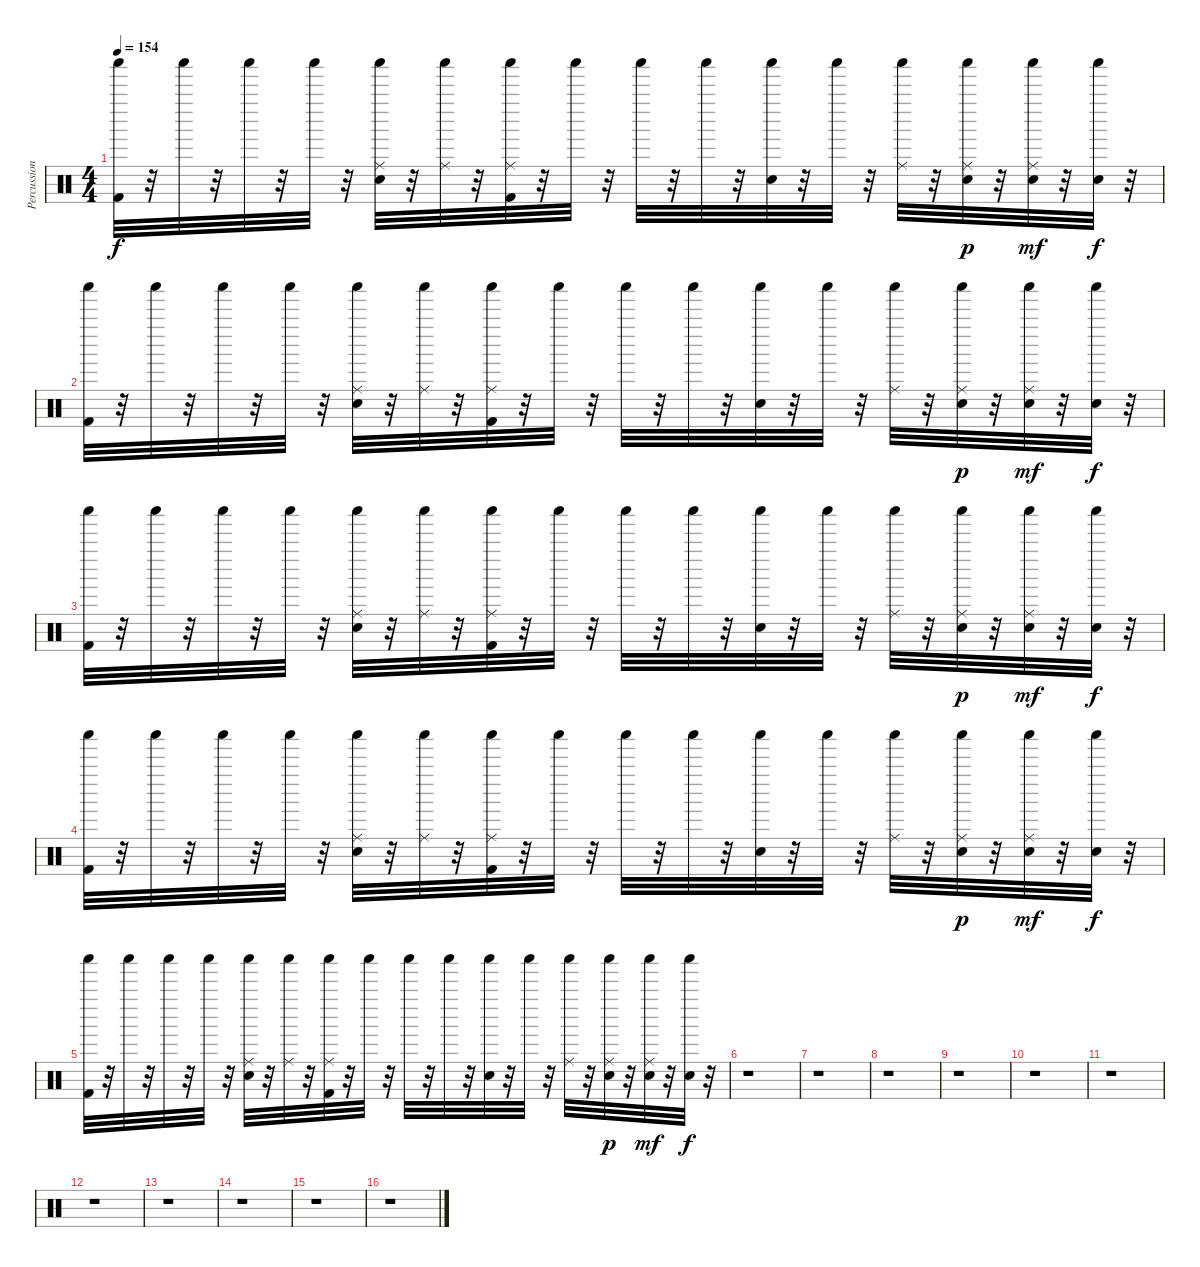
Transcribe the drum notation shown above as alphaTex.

\track ("Percussion" "Percussion") {instrument percussion}
\staff {score}
\articulation defaults
\ts (4 4)
\tempo 154
\clef neutral
\ks c
("Shaker (hit)" "Kick (hit) 2").32{dy f} r.32 "Shaker (hit)".32 r.32 "Shaker (hit)".32 r.32 "Shaker (hit)".32 r.32 ("Shaker (hit)" "Snare (hit) 2" "Ride (middle)").32 r.32 ("Shaker (hit)" "Ride (middle)").32 r.32 ("Shaker (hit)" "Kick (hit) 2" "Ride (middle)").32 r.32 "Shaker (hit)".32 r.32 "Shaker (hit)".32 r.32 "Shaker (hit)".32 r.32 ("Shaker (hit)" "Snare (hit) 2").32 r.32 "Shaker (hit)".32 r.32 ("Shaker (hit)" "Ride (middle)").32 r.32 ("Shaker (hit)" "Snare (hit) 2" "Ride (middle)").32{dy p} r.32 ("Shaker (hit)" "Snare (hit) 2" "Ride (middle)").32{dy mf} r.32 ("Shaker (hit)" "Snare (hit) 2").32{dy f} r.32 |
("Shaker (hit)" "Kick (hit) 2").32 r.32 "Shaker (hit)".32 r.32 "Shaker (hit)".32 r.32 "Shaker (hit)".32 r.32 ("Shaker (hit)" "Snare (hit) 2" "Ride (middle)").32 r.32 ("Shaker (hit)" "Ride (middle)").32 r.32 ("Shaker (hit)" "Kick (hit) 2" "Ride (middle)").32 r.32 "Shaker (hit)".32 r.32 "Shaker (hit)".32 r.32 "Shaker (hit)".32 r.32 ("Shaker (hit)" "Snare (hit) 2").32 r.32 "Shaker (hit)".32 r.32 ("Shaker (hit)" "Ride (middle)").32 r.32 ("Shaker (hit)" "Snare (hit) 2" "Ride (middle)").32{dy p} r.32 ("Shaker (hit)" "Snare (hit) 2" "Ride (middle)").32{dy mf} r.32 ("Shaker (hit)" "Snare (hit) 2").32{dy f} r.32 |
("Shaker (hit)" "Kick (hit) 2").32 r.32 "Shaker (hit)".32 r.32 "Shaker (hit)".32 r.32 "Shaker (hit)".32 r.32 ("Shaker (hit)" "Snare (hit) 2" "Ride (middle)").32 r.32 ("Shaker (hit)" "Ride (middle)").32 r.32 ("Shaker (hit)" "Kick (hit) 2" "Ride (middle)").32 r.32 "Shaker (hit)".32 r.32 "Shaker (hit)".32 r.32 "Shaker (hit)".32 r.32 ("Shaker (hit)" "Snare (hit) 2").32 r.32 "Shaker (hit)".32 r.32 ("Shaker (hit)" "Ride (middle)").32 r.32 ("Shaker (hit)" "Snare (hit) 2" "Ride (middle)").32{dy p} r.32 ("Shaker (hit)" "Snare (hit) 2" "Ride (middle)").32{dy mf} r.32 ("Shaker (hit)" "Snare (hit) 2").32{dy f} r.32 |
("Shaker (hit)" "Kick (hit) 2").32 r.32 "Shaker (hit)".32 r.32 "Shaker (hit)".32 r.32 "Shaker (hit)".32 r.32 ("Shaker (hit)" "Snare (hit) 2" "Ride (middle)").32 r.32 ("Shaker (hit)" "Ride (middle)").32 r.32 ("Shaker (hit)" "Kick (hit) 2" "Ride (middle)").32 r.32 "Shaker (hit)".32 r.32 "Shaker (hit)".32 r.32 "Shaker (hit)".32 r.32 ("Shaker (hit)" "Snare (hit) 2").32 r.32 "Shaker (hit)".32 r.32 ("Shaker (hit)" "Ride (middle)").32 r.32 ("Shaker (hit)" "Snare (hit) 2" "Ride (middle)").32{dy p} r.32 ("Shaker (hit)" "Snare (hit) 2" "Ride (middle)").32{dy mf} r.32 ("Shaker (hit)" "Snare (hit) 2").32{dy f} r.32 |
("Shaker (hit)" "Kick (hit) 2").32 r.32 "Shaker (hit)".32 r.32 "Shaker (hit)".32 r.32 "Shaker (hit)".32 r.32 ("Shaker (hit)" "Snare (hit) 2" "Ride (middle)").32 r.32 ("Shaker (hit)" "Ride (middle)").32 r.32 ("Shaker (hit)" "Kick (hit) 2" "Ride (middle)").32 r.32 "Shaker (hit)".32 r.32 "Shaker (hit)".32 r.32 "Shaker (hit)".32 r.32 ("Shaker (hit)" "Snare (hit) 2").32 r.32 "Shaker (hit)".32 r.32 ("Shaker (hit)" "Ride (middle)").32 r.32 ("Shaker (hit)" "Snare (hit) 2" "Ride (middle)").32{dy p} r.32 ("Shaker (hit)" "Snare (hit) 2" "Ride (middle)").32{dy mf} r.32 ("Shaker (hit)" "Snare (hit) 2").32{dy f} r.32 |
r.1 |
r.1 |
r.1 |
r.1 |
r.1 |
r.1 |
r.1 |
r.1 |
r.1 |
r.1 |
r.1
